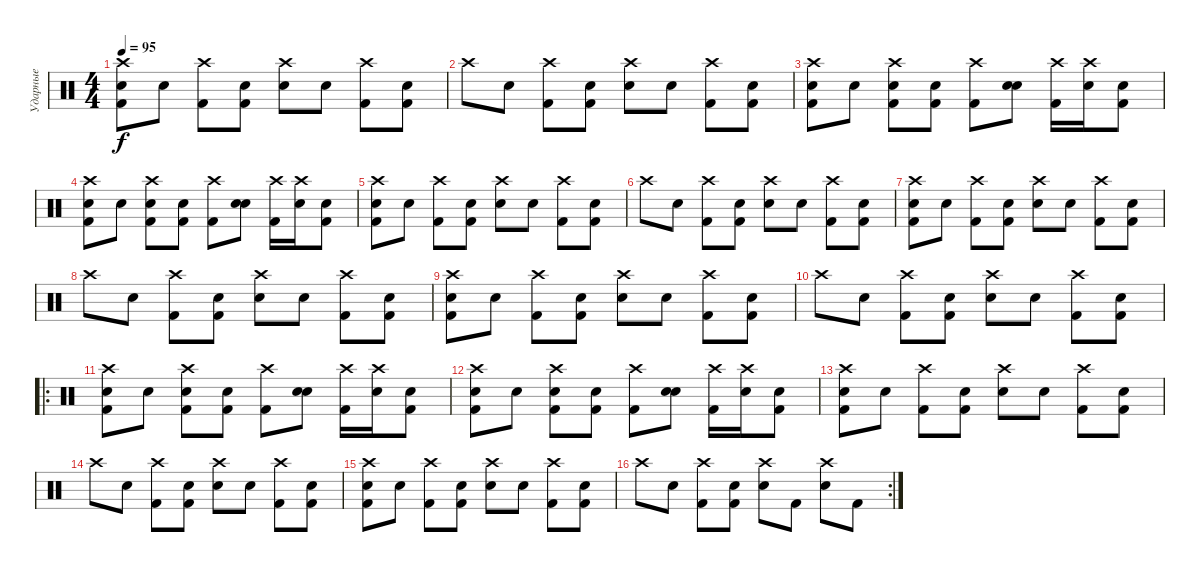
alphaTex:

\track ("Ударные" "Ударные") {instrument percussion}
\staff {score}
\articulation defaults
\ts (4 4)
\tempo 95
\clef neutral
\ks c
("Crash high (hit)" "Kick (hit) 2" "Snare (hit) 2").8{dy f} "Snare (hit)".8 ("Crash high (hit)" "Kick (hit) 2").8 ("Snare (hit)" "Kick (hit) 2").8 ("Crash high (hit)" "Electric Snare (hit)").8 "Snare (hit)".8 ("Crash high (hit)" "Kick (hit) 2").8 ("Snare (hit)" "Kick (hit) 2").8 |
"Crash high (hit)".8 "Snare (hit)".8 ("Crash high (hit)" "Kick (hit) 2").8 ("Snare (hit)" "Kick (hit) 2").8 ("Crash high (hit)" "Electric Snare (hit)").8 "Snare (hit)".8 ("Crash high (hit)" "Kick (hit) 2").8 ("Snare (hit)" "Kick (hit) 2").8 |
("Crash high (hit)" "Kick (hit) 2" "Snare (hit) 2").8 "Snare (hit)".8 ("Crash high (hit)" "Kick (hit) 2" "Snare (hit) 2").8 ("Snare (hit)" "Kick (hit) 2").8 ("Crash high (hit)" "Kick (hit) 2").8 ("Snare (hit)" "Electric Snare (hit)").8 ("Crash high (hit)" "Kick (hit) 2").16 ("Crash high (hit)" "Electric Snare (hit)").16 ("Snare (hit)" "Kick (hit) 2").8 |
("Crash high (hit)" "Kick (hit) 2" "Snare (hit) 2").8 "Snare (hit)".8 ("Crash high (hit)" "Kick (hit) 2" "Snare (hit) 2").8 ("Snare (hit)" "Kick (hit) 2").8 ("Crash high (hit)" "Kick (hit) 2").8 ("Snare (hit)" "Electric Snare (hit)").8 ("Crash high (hit)" "Kick (hit) 2").16 ("Crash high (hit)" "Electric Snare (hit)").16 ("Snare (hit)" "Kick (hit) 2").8 |
("Crash high (hit)" "Kick (hit) 2" "Snare (hit) 2").8{volume 16} "Snare (hit)".8 ("Crash high (hit)" "Kick (hit) 2").8 ("Snare (hit)" "Kick (hit) 2").8 ("Crash high (hit)" "Electric Snare (hit)").8 "Snare (hit)".8 ("Crash high (hit)" "Kick (hit) 2").8 ("Snare (hit)" "Kick (hit) 2").8 |
"Crash high (hit)".8 "Snare (hit)".8 ("Crash high (hit)" "Kick (hit) 2").8 ("Snare (hit)" "Kick (hit) 2").8 ("Crash high (hit)" "Electric Snare (hit)").8 "Snare (hit)".8 ("Crash high (hit)" "Kick (hit) 2").8 ("Snare (hit)" "Kick (hit) 2").8 |
("Crash high (hit)" "Kick (hit) 2" "Snare (hit) 2").8 "Snare (hit)".8 ("Crash high (hit)" "Kick (hit) 2").8 ("Snare (hit)" "Kick (hit) 2").8 ("Crash high (hit)" "Electric Snare (hit)").8 "Snare (hit)".8 ("Crash high (hit)" "Kick (hit) 2").8 ("Snare (hit)" "Kick (hit) 2").8 |
"Crash high (hit)".8 "Snare (hit)".8 ("Crash high (hit)" "Kick (hit) 2").8 ("Snare (hit)" "Kick (hit) 2").8 ("Crash high (hit)" "Electric Snare (hit)").8 "Snare (hit)".8 ("Crash high (hit)" "Kick (hit) 2").8 ("Snare (hit)" "Kick (hit) 2").8 |
("Crash high (hit)" "Kick (hit) 2" "Snare (hit) 2").8 "Snare (hit)".8 ("Crash high (hit)" "Kick (hit) 2").8 ("Snare (hit)" "Kick (hit) 2").8 ("Crash high (hit)" "Electric Snare (hit)").8 "Snare (hit)".8 ("Crash high (hit)" "Kick (hit) 2").8 ("Snare (hit)" "Kick (hit) 2").8 |
"Crash high (hit)".8 "Snare (hit)".8 ("Crash high (hit)" "Kick (hit) 2").8 ("Snare (hit)" "Kick (hit) 2").8 ("Crash high (hit)" "Electric Snare (hit)").8 "Snare (hit)".8 ("Crash high (hit)" "Kick (hit) 2").8 ("Snare (hit)" "Kick (hit) 2").8 |
\ro
("Crash high (hit)" "Kick (hit) 2" "Snare (hit) 2").8 "Snare (hit)".8 ("Crash high (hit)" "Kick (hit) 2" "Snare (hit) 2").8 ("Snare (hit)" "Kick (hit) 2").8 ("Crash high (hit)" "Kick (hit) 2").8 ("Snare (hit)" "Electric Snare (hit)").8 ("Crash high (hit)" "Kick (hit) 2").16 ("Crash high (hit)" "Electric Snare (hit)").16 ("Snare (hit)" "Kick (hit) 2").8 |
("Crash high (hit)" "Kick (hit) 2" "Snare (hit) 2").8 "Snare (hit)".8 ("Crash high (hit)" "Kick (hit) 2" "Snare (hit) 2").8 ("Snare (hit)" "Kick (hit) 2").8 ("Crash high (hit)" "Kick (hit) 2").8 ("Snare (hit)" "Electric Snare (hit)").8 ("Crash high (hit)" "Kick (hit) 2").16 ("Crash high (hit)" "Electric Snare (hit)").16 ("Snare (hit)" "Kick (hit) 2").8 |
("Crash high (hit)" "Kick (hit) 2" "Snare (hit) 2").8{volume 16} "Snare (hit)".8 ("Crash high (hit)" "Kick (hit) 2").8 ("Snare (hit)" "Kick (hit) 2").8 ("Crash high (hit)" "Electric Snare (hit)").8 "Snare (hit)".8 ("Crash high (hit)" "Kick (hit) 2").8 ("Snare (hit)" "Kick (hit) 2").8 |
"Crash high (hit)".8 "Snare (hit)".8 ("Crash high (hit)" "Kick (hit) 2").8 ("Snare (hit)" "Kick (hit) 2").8 ("Crash high (hit)" "Electric Snare (hit)").8 "Snare (hit)".8 ("Crash high (hit)" "Kick (hit) 2").8 ("Snare (hit)" "Kick (hit) 2").8 |
("Crash high (hit)" "Kick (hit) 2" "Snare (hit) 2").8 "Snare (hit)".8 ("Crash high (hit)" "Kick (hit) 2").8 ("Snare (hit)" "Kick (hit) 2").8 ("Crash high (hit)" "Electric Snare (hit)").8 "Snare (hit)".8 ("Crash high (hit)" "Kick (hit) 2").8 ("Snare (hit)" "Kick (hit) 2").8 |
\rc 2 "Crash high (hit)".8 "Snare (hit)".8
("Crash high (hit)" "Kick (hit) 2").8 ("Snare (hit)" "Kick (hit) 2").8 ("Crash high (hit)" "Electric Snare (hit)").8 "Kick (hit) 2".8 ("Crash high (hit)" "Electric Snare (hit)").8 "Kick (hit) 2".8
